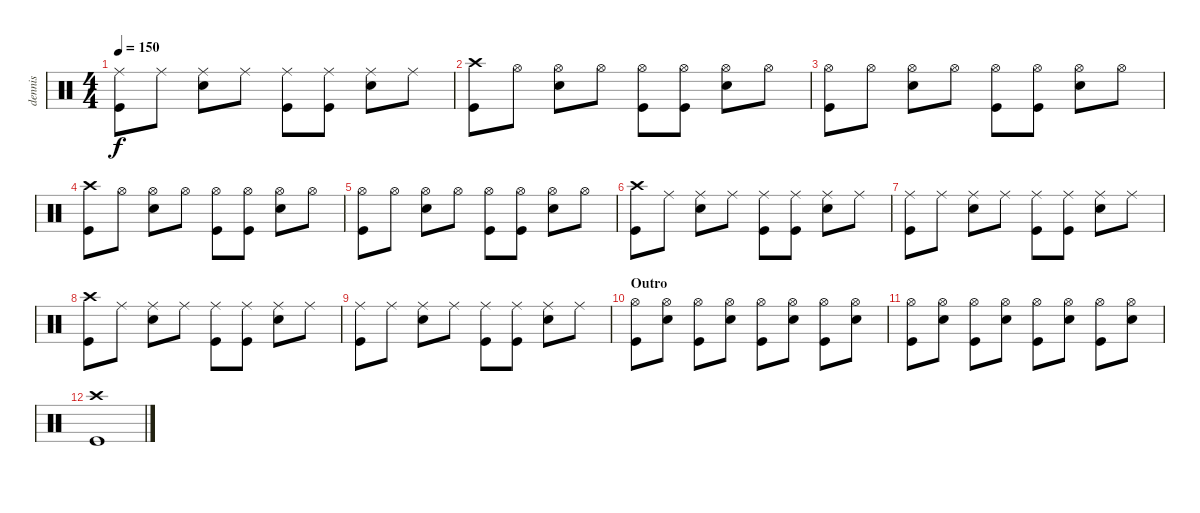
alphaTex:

\track ("dennis" "dennis") {instrument percussion}
\staff {score}
\articulation defaults
\ts (4 4)
\tempo 150
\clef neutral
\ks c
("Ride (middle)" "Kick (hit)").8{dy f} "Ride (middle)".8 ("Ride (middle)" "Electric Snare (hit)").8 "Ride (middle)".8 ("Ride (middle)" "Kick (hit)").8 ("Ride (middle)" "Kick (hit)").8 ("Ride (middle)" "Electric Snare (hit)").8 "Ride (middle)".8 |
("Crash high (hit)" "Kick (hit)").8 "Hi-Hat (open)".8 ("Hi-Hat (open)" "Electric Snare (hit)").8 "Hi-Hat (open)".8 ("Hi-Hat (open)" "Kick (hit)").8 ("Hi-Hat (open)" "Kick (hit)").8 ("Hi-Hat (open)" "Electric Snare (hit)").8 "Hi-Hat (open)".8 |
("Hi-Hat (open)" "Kick (hit)").8 "Hi-Hat (open)".8 ("Hi-Hat (open)" "Electric Snare (hit)").8 "Hi-Hat (open)".8 ("Hi-Hat (open)" "Kick (hit)").8 ("Hi-Hat (open)" "Kick (hit)").8 ("Hi-Hat (open)" "Electric Snare (hit)").8 "Hi-Hat (open)".8 |
("Crash high (hit)" "Kick (hit)").8 "Hi-Hat (open)".8 ("Hi-Hat (open)" "Electric Snare (hit)").8 "Hi-Hat (open)".8 ("Hi-Hat (open)" "Kick (hit)").8 ("Hi-Hat (open)" "Kick (hit)").8 ("Hi-Hat (open)" "Electric Snare (hit)").8 "Hi-Hat (open)".8 |
("Hi-Hat (open)" "Kick (hit)").8 "Hi-Hat (open)".8 ("Hi-Hat (open)" "Electric Snare (hit)").8 "Hi-Hat (open)".8 ("Hi-Hat (open)" "Kick (hit)").8 ("Hi-Hat (open)" "Kick (hit)").8 ("Hi-Hat (open)" "Electric Snare (hit)").8 "Hi-Hat (open)".8 |
("Crash high (hit)" "Kick (hit)").8 "Ride (middle)".8 ("Ride (middle)" "Electric Snare (hit)").8 "Ride (middle)".8 ("Ride (middle)" "Kick (hit)").8 ("Ride (middle)" "Kick (hit)").8 ("Ride (middle)" "Electric Snare (hit)").8 "Ride (middle)".8 |
("Ride (middle)" "Kick (hit)").8 "Ride (middle)".8 ("Ride (middle)" "Electric Snare (hit)").8 "Ride (middle)".8 ("Ride (middle)" "Kick (hit)").8 ("Ride (middle)" "Kick (hit)").8 ("Ride (middle)" "Electric Snare (hit)").8 "Ride (middle)".8 |
("Crash high (hit)" "Kick (hit)").8 "Ride (middle)".8 ("Ride (middle)" "Electric Snare (hit)").8 "Ride (middle)".8 ("Ride (middle)" "Kick (hit)").8 ("Ride (middle)" "Kick (hit)").8 ("Ride (middle)" "Electric Snare (hit)").8 "Ride (middle)".8 |
("Ride (middle)" "Kick (hit)").8 "Ride (middle)".8 ("Ride (middle)" "Electric Snare (hit)").8 "Ride (middle)".8 ("Ride (middle)" "Kick (hit)").8 ("Ride (middle)" "Kick (hit)").8 ("Ride (middle)" "Electric Snare (hit)").8 "Ride (middle)".8 |
\section ("" "Outro")
("Hi-Hat (open)" "Kick (hit)").8 ("Hi-Hat (open)" "Electric Snare (hit)").8 ("Hi-Hat (open)" "Kick (hit)").8 ("Hi-Hat (open)" "Electric Snare (hit)").8 ("Hi-Hat (open)" "Kick (hit)").8 ("Hi-Hat (open)" "Electric Snare (hit)").8 ("Hi-Hat (open)" "Kick (hit)").8 ("Hi-Hat (open)" "Electric Snare (hit)").8 |
("Hi-Hat (open)" "Kick (hit)").8 ("Hi-Hat (open)" "Electric Snare (hit)").8 ("Hi-Hat (open)" "Kick (hit)").8 ("Hi-Hat (open)" "Electric Snare (hit)").8 ("Hi-Hat (open)" "Kick (hit)").8 ("Hi-Hat (open)" "Electric Snare (hit)").8 ("Hi-Hat (open)" "Kick (hit)").8 ("Hi-Hat (open)" "Electric Snare (hit)").8 |
("Crash high (hit)" "Kick (hit)").1
